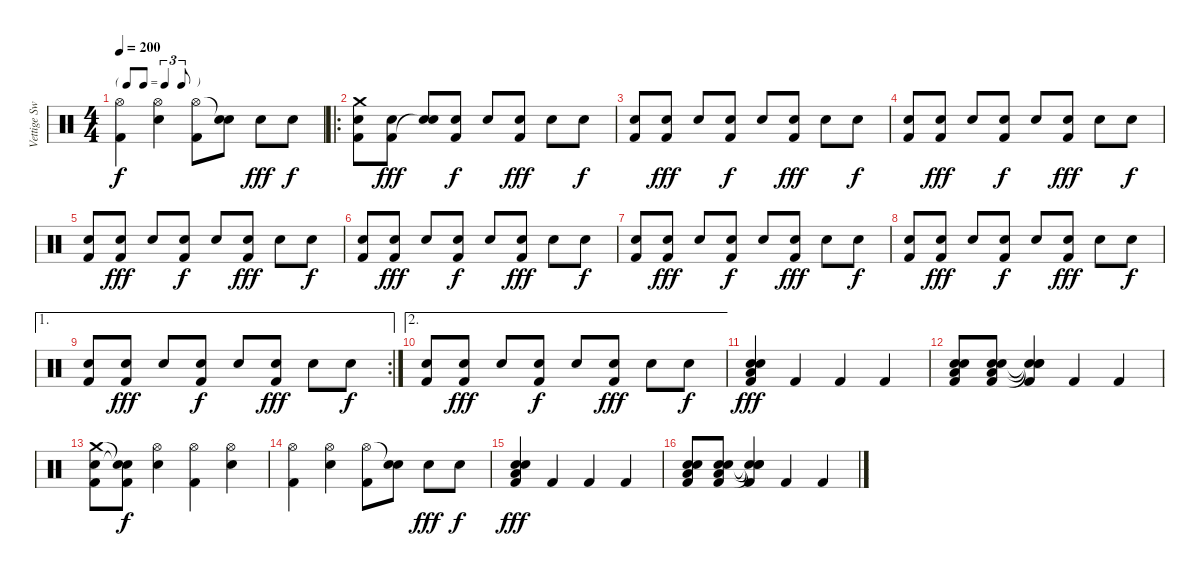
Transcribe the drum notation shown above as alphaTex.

\track ("Vettige Swa" "Vettige Sw") {instrument percussion}
\staff {score}
\articulation defaults
\ts (4 4)
\tf triplet8th
\tempo 200
\clef neutral
\ks c
("Hi-Hat (open)" "Kick (hit) 2").4{dy f} ("Hi-Hat (open)" "Electric Snare (hit)").4 ("Hi-Hat (open)" "Kick (hit) 2").8 ("Snare (hit)"{t} "Electric Snare (hit)").8 "Electric Snare (hit)".8{dy fff} "Electric Snare (hit)".8{dy f} |
\ro
("Electric Snare (hit)" "Kick (hit) 2" "Crash medium (hit)").8 ("Electric Snare (hit)" "Kick (hit) 2").8{dy fff} ("Electric Snare (hit)" "Snare (hit)"{t}).8 ("Electric Snare (hit)" "Kick (hit) 2").8{dy f} "Electric Snare (hit)".8 ("Electric Snare (hit)" "Kick (hit) 2").8{dy fff} "Electric Snare (hit)".8 "Electric Snare (hit)".8{dy f} |
("Electric Snare (hit)" "Kick (hit) 2").8 ("Electric Snare (hit)" "Kick (hit) 2").8{dy fff} "Electric Snare (hit)".8 ("Electric Snare (hit)" "Kick (hit) 2").8{dy f} "Electric Snare (hit)".8 ("Electric Snare (hit)" "Kick (hit) 2").8{dy fff} "Electric Snare (hit)".8 "Electric Snare (hit)".8{dy f} |
("Electric Snare (hit)" "Kick (hit) 2").8 ("Electric Snare (hit)" "Kick (hit) 2").8{dy fff} "Electric Snare (hit)".8 ("Electric Snare (hit)" "Kick (hit) 2").8{dy f} "Electric Snare (hit)".8 ("Electric Snare (hit)" "Kick (hit) 2").8{dy fff} "Electric Snare (hit)".8 "Electric Snare (hit)".8{dy f} |
("Electric Snare (hit)" "Kick (hit) 2").8 ("Electric Snare (hit)" "Kick (hit) 2").8{dy fff} "Electric Snare (hit)".8 ("Electric Snare (hit)" "Kick (hit) 2").8{dy f} "Electric Snare (hit)".8 ("Electric Snare (hit)" "Kick (hit) 2").8{dy fff} "Electric Snare (hit)".8 "Electric Snare (hit)".8{dy f} |
("Electric Snare (hit)" "Kick (hit) 2").8 ("Electric Snare (hit)" "Kick (hit) 2").8{dy fff} "Electric Snare (hit)".8 ("Electric Snare (hit)" "Kick (hit) 2").8{dy f} "Electric Snare (hit)".8 ("Electric Snare (hit)" "Kick (hit) 2").8{dy fff} "Electric Snare (hit)".8 "Electric Snare (hit)".8{dy f} |
("Electric Snare (hit)" "Kick (hit) 2").8 ("Electric Snare (hit)" "Kick (hit) 2").8{dy fff} "Electric Snare (hit)".8 ("Electric Snare (hit)" "Kick (hit) 2").8{dy f} "Electric Snare (hit)".8 ("Electric Snare (hit)" "Kick (hit) 2").8{dy fff} "Electric Snare (hit)".8 "Electric Snare (hit)".8{dy f} |
("Electric Snare (hit)" "Kick (hit) 2").8 ("Electric Snare (hit)" "Kick (hit) 2").8{dy fff} "Electric Snare (hit)".8 ("Electric Snare (hit)" "Kick (hit) 2").8{dy f} "Electric Snare (hit)".8 ("Electric Snare (hit)" "Kick (hit) 2").8{dy fff} "Electric Snare (hit)".8 "Electric Snare (hit)".8{dy f} |
\ae 1
\rc 2
("Electric Snare (hit)" "Kick (hit) 2").8 ("Electric Snare (hit)" "Kick (hit) 2").8{dy fff} "Electric Snare (hit)".8 ("Electric Snare (hit)" "Kick (hit) 2").8{dy f} "Electric Snare (hit)".8 ("Electric Snare (hit)" "Kick (hit) 2").8{dy fff} "Electric Snare (hit)".8 "Electric Snare (hit)".8{dy f} |
\ae 2
("Electric Snare (hit)" "Kick (hit) 2").8 ("Electric Snare (hit)" "Kick (hit) 2").8{dy fff} "Electric Snare (hit)".8 ("Electric Snare (hit)" "Kick (hit) 2").8{dy f} "Electric Snare (hit)".8 ("Electric Snare (hit)" "Kick (hit) 2").8{dy fff} "Electric Snare (hit)".8 "Electric Snare (hit)".8{dy f} |
("Electric Snare (hit)" "Electric Snare (hit)" "Kick (hit) 2" "Low Floor Tom (hit)").4{dy fff} "Kick (hit) 2".4 "Kick (hit) 2".4 "Kick (hit) 2".4 |
("Electric Snare (hit)" "Electric Snare (hit)" "Kick (hit) 2" "Low Floor Tom (hit)").8 ("Electric Snare (hit)" "Electric Snare (hit)" "Kick (hit) 2" "Low Floor Tom (hit)").8 ("Kick (hit) 2" "Snare (hit)"{t} "Snare (hit)"{t} "Snare (hit)"{t}).4 "Kick (hit) 2".4 "Kick (hit) 2".4 |
("Electric Snare (hit)" "Kick (hit) 2" "Crash medium (hit)").8 ("Snare (hit)"{t} "Kick (hit) 2" "Snare (hit)"{t}).8{dy f} ("Hi-Hat (open)" "Electric Snare (hit)").4 ("Hi-Hat (open)" "Kick (hit) 2").4 ("Hi-Hat (open)" "Electric Snare (hit)").4 |
("Hi-Hat (open)" "Kick (hit) 2").4 ("Hi-Hat (open)" "Electric Snare (hit)").4 ("Hi-Hat (open)" "Kick (hit) 2").8 ("Snare (hit)"{t} "Electric Snare (hit)").8 "Electric Snare (hit)".8{dy fff} "Electric Snare (hit)".8{dy f} |
("Electric Snare (hit)" "Electric Snare (hit)" "Kick (hit) 2" "Low Floor Tom (hit)").4{dy fff} "Kick (hit) 2".4 "Kick (hit) 2".4 "Kick (hit) 2".4 |
("Electric Snare (hit)" "Electric Snare (hit)" "Kick (hit) 2" "Low Floor Tom (hit)").8 ("Electric Snare (hit)" "Electric Snare (hit)" "Kick (hit) 2" "Low Floor Tom (hit)").8 ("Kick (hit) 2" "Snare (hit)"{t} "Snare (hit)"{t} "Snare (hit)"{t}).4 "Kick (hit) 2".4 "Kick (hit) 2".4
